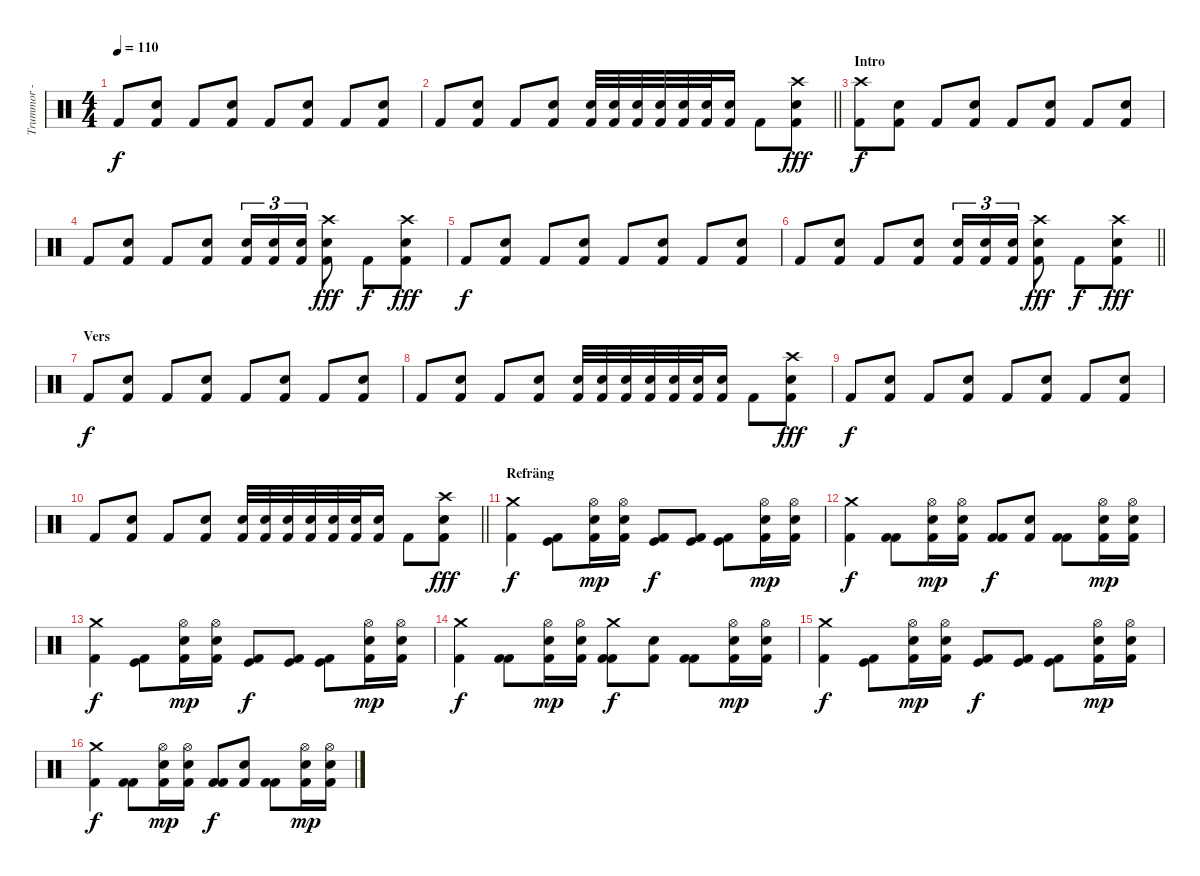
\track ("Trummor - Larzon" "Trummor - ") {instrument percussion}
\staff {score}
\articulation defaults
\ts (4 4)
\tempo 110
\clef neutral
\ks c "Kick (hit) 2".8{dy f}
("Kick (hit) 2" "Snare (hit) 2").8 "Kick (hit) 2".8 ("Kick (hit) 2" "Snare (hit) 2").8 "Kick (hit) 2".8 ("Kick (hit) 2" "Snare (hit) 2").8 "Kick (hit) 2".8 ("Kick (hit) 2" "Snare (hit) 2").8 |
\barLineRight lightlight "Kick (hit) 2".8
("Kick (hit) 2" "Snare (hit) 2").8 "Kick (hit) 2".8 ("Kick (hit) 2" "Snare (hit) 2").8 ("Kick (hit) 2" "Snare (hit) 2").32 ("Kick (hit) 2" "Snare (hit) 2").32 ("Kick (hit) 2" "Snare (hit) 2").32 ("Kick (hit) 2" "Snare (hit) 2").32 ("Kick (hit) 2" "Snare (hit) 2").32 ("Kick (hit) 2" "Snare (hit) 2").32 ("Kick (hit) 2" "Snare (hit) 2").16 "Kick (hit) 2".8 ("Kick (hit) 2" "Crash high (hit)" "Snare (hit) 2").8{dy fff} |
\section ("" "Intro")
("Kick (hit) 2" "Crash high (hit)").8{dy f} ("Kick (hit) 2" "Snare (hit) 2").8 "Kick (hit) 2".8 ("Kick (hit) 2" "Snare (hit) 2").8 "Kick (hit) 2".8 ("Kick (hit) 2" "Snare (hit) 2").8 "Kick (hit) 2".8 ("Kick (hit) 2" "Snare (hit) 2").8 |
"Kick (hit) 2".8 ("Kick (hit) 2" "Snare (hit) 2").8 "Kick (hit) 2".8 ("Kick (hit) 2" "Snare (hit) 2").8 ("Kick (hit) 2" "Snare (hit) 2").16{tu (3 2)} ("Kick (hit) 2" "Snare (hit) 2").16{tu (3 2)} ("Kick (hit) 2" "Snare (hit) 2").16{tu (3 2)} ("Kick (hit) 2" "Crash high (hit)" "Snare (hit) 2").8{dy fff} "Kick (hit) 2".8{dy f} ("Kick (hit) 2" "Crash high (hit)" "Snare (hit) 2").8{dy fff} |
"Kick (hit) 2".8{dy f} ("Kick (hit) 2" "Snare (hit) 2").8 "Kick (hit) 2".8 ("Kick (hit) 2" "Snare (hit) 2").8 "Kick (hit) 2".8 ("Kick (hit) 2" "Snare (hit) 2").8 "Kick (hit) 2".8 ("Kick (hit) 2" "Snare (hit) 2").8 |
\barLineRight lightlight "Kick (hit) 2".8
("Kick (hit) 2" "Snare (hit) 2").8 "Kick (hit) 2".8 ("Kick (hit) 2" "Snare (hit) 2").8 ("Kick (hit) 2" "Snare (hit) 2").16{tu (3 2)} ("Kick (hit) 2" "Snare (hit) 2").16{tu (3 2)} ("Kick (hit) 2" "Snare (hit) 2").16{tu (3 2)} ("Kick (hit) 2" "Crash high (hit)" "Snare (hit) 2").8{dy fff} "Kick (hit) 2".8{dy f} ("Kick (hit) 2" "Crash high (hit)" "Snare (hit) 2").8{dy fff} |
\section ("" "Vers")
"Kick (hit) 2".8{dy f} ("Kick (hit) 2" "Snare (hit) 2").8 "Kick (hit) 2".8 ("Kick (hit) 2" "Snare (hit) 2").8 "Kick (hit) 2".8 ("Kick (hit) 2" "Snare (hit) 2").8 "Kick (hit) 2".8 ("Kick (hit) 2" "Snare (hit) 2").8 |
"Kick (hit) 2".8 ("Kick (hit) 2" "Snare (hit) 2").8 "Kick (hit) 2".8 ("Kick (hit) 2" "Snare (hit) 2").8 ("Kick (hit) 2" "Snare (hit) 2").32 ("Kick (hit) 2" "Snare (hit) 2").32 ("Kick (hit) 2" "Snare (hit) 2").32 ("Kick (hit) 2" "Snare (hit) 2").32 ("Kick (hit) 2" "Snare (hit) 2").32 ("Kick (hit) 2" "Snare (hit) 2").32 ("Kick (hit) 2" "Snare (hit) 2").16 "Kick (hit) 2".8 ("Kick (hit) 2" "Crash high (hit)" "Snare (hit) 2").8{dy fff} |
"Kick (hit) 2".8{dy f} ("Kick (hit) 2" "Snare (hit) 2").8 "Kick (hit) 2".8 ("Kick (hit) 2" "Snare (hit) 2").8 "Kick (hit) 2".8 ("Kick (hit) 2" "Snare (hit) 2").8 "Kick (hit) 2".8 ("Kick (hit) 2" "Snare (hit) 2").8 |
\barLineRight lightlight "Kick (hit) 2".8
("Kick (hit) 2" "Snare (hit) 2").8 "Kick (hit) 2".8 ("Kick (hit) 2" "Snare (hit) 2").8 ("Kick (hit) 2" "Snare (hit) 2").32 ("Kick (hit) 2" "Snare (hit) 2").32 ("Kick (hit) 2" "Snare (hit) 2").32 ("Kick (hit) 2" "Snare (hit) 2").32 ("Kick (hit) 2" "Snare (hit) 2").32 ("Kick (hit) 2" "Snare (hit) 2").32 ("Kick (hit) 2" "Snare (hit) 2").16 "Kick (hit) 2".8 ("Kick (hit) 2" "Crash high (hit)" "Snare (hit) 2").8{dy fff} |
\section ("" "Refräng")
("Crash medium (hit)" "Kick (hit) 2").4{dy f} ("Kick (hit)" "Kick (hit) 2").8 ("Snare (hit) 2" "Hi-Hat (open)" "Kick (hit) 2").16{dy mp} ("Snare (hit) 2" "Hi-Hat (open)" "Kick (hit) 2").16 ("Kick (hit)" "Kick (hit) 2").8{dy f} ("Kick (hit)" "Kick (hit) 2").8 ("Kick (hit)" "Kick (hit) 2").8 ("Snare (hit) 2" "Hi-Hat (open)" "Kick (hit) 2").16{dy mp} ("Snare (hit) 2" "Hi-Hat (open)" "Kick (hit) 2").16 |
("Crash medium (hit)" "Kick (hit) 2").4{dy f} ("Kick (hit) 2" "Kick (hit) 2").8 ("Snare (hit) 2" "Hi-Hat (open)" "Kick (hit) 2").16{dy mp} ("Snare (hit) 2" "Hi-Hat (open)" "Kick (hit) 2").16 ("Kick (hit) 2" "Kick (hit) 2").8{dy f} ("Snare (hit) 2" "Kick (hit) 2").8 ("Kick (hit) 2" "Kick (hit) 2").8 ("Snare (hit) 2" "Hi-Hat (open)" "Kick (hit) 2").16{dy mp} ("Snare (hit) 2" "Hi-Hat (open)" "Kick (hit) 2").16 |
("Crash medium (hit)" "Kick (hit) 2").4{dy f} ("Kick (hit)" "Kick (hit) 2").8 ("Snare (hit) 2" "Hi-Hat (open)" "Kick (hit) 2").16{dy mp} ("Snare (hit) 2" "Hi-Hat (open)" "Kick (hit) 2").16 ("Kick (hit)" "Kick (hit) 2").8{dy f} ("Kick (hit)" "Kick (hit) 2").8 ("Kick (hit)" "Kick (hit) 2").8 ("Snare (hit) 2" "Hi-Hat (open)" "Kick (hit) 2").16{dy mp} ("Snare (hit) 2" "Hi-Hat (open)" "Kick (hit) 2").16 |
("Crash medium (hit)" "Kick (hit) 2").4{dy f} ("Kick (hit) 2" "Kick (hit) 2").8 ("Snare (hit) 2" "Hi-Hat (open)" "Kick (hit) 2").16{dy mp} ("Snare (hit) 2" "Hi-Hat (open)" "Kick (hit) 2").16 ("Kick (hit) 2" "Crash medium (hit)" "Kick (hit) 2").8{dy f} ("Snare (hit) 2" "Kick (hit) 2").8 ("Kick (hit) 2" "Kick (hit) 2").8 ("Snare (hit) 2" "Hi-Hat (open)" "Kick (hit) 2").16{dy mp} ("Snare (hit) 2" "Hi-Hat (open)" "Kick (hit) 2").16 |
("Crash medium (hit)" "Kick (hit) 2").4{dy f} ("Kick (hit)" "Kick (hit) 2").8 ("Snare (hit) 2" "Hi-Hat (open)" "Kick (hit) 2").16{dy mp} ("Snare (hit) 2" "Hi-Hat (open)" "Kick (hit) 2").16 ("Kick (hit)" "Kick (hit) 2").8{dy f} ("Kick (hit)" "Kick (hit) 2").8 ("Kick (hit)" "Kick (hit) 2").8 ("Snare (hit) 2" "Hi-Hat (open)" "Kick (hit) 2").16{dy mp} ("Snare (hit) 2" "Hi-Hat (open)" "Kick (hit) 2").16 |
("Crash medium (hit)" "Kick (hit) 2").4{dy f} ("Kick (hit) 2" "Kick (hit) 2").8 ("Snare (hit) 2" "Hi-Hat (open)" "Kick (hit) 2").16{dy mp} ("Snare (hit) 2" "Hi-Hat (open)" "Kick (hit) 2").16 ("Kick (hit) 2" "Kick (hit) 2").8{dy f} ("Snare (hit) 2" "Kick (hit) 2").8 ("Kick (hit) 2" "Kick (hit) 2").8 ("Snare (hit) 2" "Hi-Hat (open)" "Kick (hit) 2").16{dy mp} ("Snare (hit) 2" "Hi-Hat (open)" "Kick (hit) 2").16
